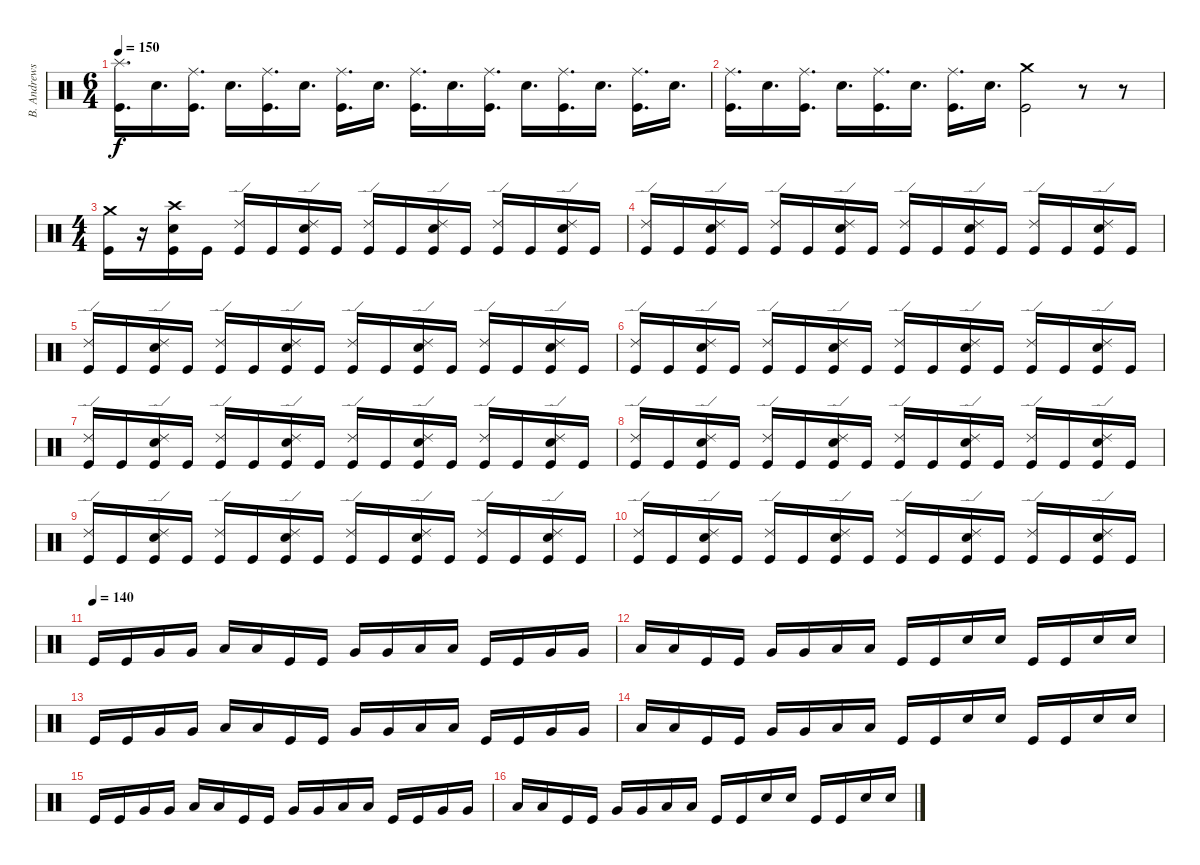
\track ("B. Andrews" "B. Andrews") {instrument percussion}
\staff {score}
\articulation defaults
\ts (6 4)
\tempo 150
\clef neutral
\ks c
("Splash (hit)" "Kick (hit)").16{d dy f} "Electric Snare (hit)".16{d} ("Ride (middle)" "Kick (hit)").16{d} "Electric Snare (hit)".16{d} ("Ride (middle)" "Kick (hit)").16{d} "Electric Snare (hit)".16{d} ("Ride (middle)" "Kick (hit)").16{d} "Electric Snare (hit)".16{d} ("Ride (middle)" "Kick (hit)").16{d} "Electric Snare (hit)".16{d} ("Ride (middle)" "Kick (hit)").16{d} "Electric Snare (hit)".16{d} ("Ride (middle)" "Kick (hit)").16{d} "Electric Snare (hit)".16{d} ("Ride (middle)" "Kick (hit)").16{d} "Electric Snare (hit)".16{d} |
("Ride (middle)" "Kick (hit)").16{d} "Electric Snare (hit)".16{d} ("Ride (middle)" "Kick (hit)").16{d} "Electric Snare (hit)".16{d} ("Ride (middle)" "Kick (hit)").16{d} "Electric Snare (hit)".16{d} ("Ride (middle)" "Kick (hit)").16{d} "Electric Snare (hit)".16{d} ("Crash medium (hit)" "Kick (hit)").2 r.8 r.8 |
\ts (4 4)
("Crash medium (hit)" "Kick (hit)").16 r.16 ("Crash high (hit)" "Electric Snare (hit)" "Kick (hit)").16 "Kick (hit)".16 ("Ride (edge) 2" "Kick (hit)").16 "Kick (hit)".16 ("Ride (edge) 2" "Electric Snare (hit)" "Kick (hit)").16 "Kick (hit)".16 ("Ride (edge) 2" "Kick (hit)").16 "Kick (hit)".16 ("Ride (edge) 2" "Electric Snare (hit)" "Kick (hit)").16 "Kick (hit)".16 ("Ride (edge) 2" "Kick (hit)").16 "Kick (hit)".16 ("Ride (edge) 2" "Electric Snare (hit)" "Kick (hit)").16 "Kick (hit)".16 |
("Ride (edge) 2" "Kick (hit)").16 "Kick (hit)".16 ("Ride (edge) 2" "Electric Snare (hit)" "Kick (hit)").16 "Kick (hit)".16 ("Ride (edge) 2" "Kick (hit)").16 "Kick (hit)".16 ("Ride (edge) 2" "Electric Snare (hit)" "Kick (hit)").16 "Kick (hit)".16 ("Ride (edge) 2" "Kick (hit)").16 "Kick (hit)".16 ("Ride (edge) 2" "Electric Snare (hit)" "Kick (hit)").16 "Kick (hit)".16 ("Ride (edge) 2" "Kick (hit)").16 "Kick (hit)".16 ("Ride (edge) 2" "Electric Snare (hit)" "Kick (hit)").16 "Kick (hit)".16 |
("Ride (edge) 2" "Kick (hit)").16 "Kick (hit)".16 ("Ride (edge) 2" "Electric Snare (hit)" "Kick (hit)").16 "Kick (hit)".16 ("Ride (edge) 2" "Kick (hit)").16 "Kick (hit)".16 ("Ride (edge) 2" "Electric Snare (hit)" "Kick (hit)").16 "Kick (hit)".16 ("Ride (edge) 2" "Kick (hit)").16 "Kick (hit)".16 ("Ride (edge) 2" "Electric Snare (hit)" "Kick (hit)").16 "Kick (hit)".16 ("Ride (edge) 2" "Kick (hit)").16 "Kick (hit)".16 ("Ride (edge) 2" "Electric Snare (hit)" "Kick (hit)").16 "Kick (hit)".16 |
("Ride (edge) 2" "Kick (hit)").16 "Kick (hit)".16 ("Ride (edge) 2" "Electric Snare (hit)" "Kick (hit)").16 "Kick (hit)".16 ("Ride (edge) 2" "Kick (hit)").16 "Kick (hit)".16 ("Ride (edge) 2" "Electric Snare (hit)" "Kick (hit)").16 "Kick (hit)".16 ("Ride (edge) 2" "Kick (hit)").16 "Kick (hit)".16 ("Ride (edge) 2" "Electric Snare (hit)" "Kick (hit)").16 "Kick (hit)".16 ("Ride (edge) 2" "Kick (hit)").16 "Kick (hit)".16 ("Ride (edge) 2" "Electric Snare (hit)" "Kick (hit)").16 "Kick (hit)".16 |
("Ride (edge) 2" "Kick (hit)").16 "Kick (hit)".16 ("Ride (edge) 2" "Electric Snare (hit)" "Kick (hit)").16 "Kick (hit)".16 ("Ride (edge) 2" "Kick (hit)").16 "Kick (hit)".16 ("Ride (edge) 2" "Electric Snare (hit)" "Kick (hit)").16 "Kick (hit)".16 ("Ride (edge) 2" "Kick (hit)").16 "Kick (hit)".16 ("Ride (edge) 2" "Electric Snare (hit)" "Kick (hit)").16 "Kick (hit)".16 ("Ride (edge) 2" "Kick (hit)").16 "Kick (hit)".16 ("Ride (edge) 2" "Electric Snare (hit)" "Kick (hit)").16 "Kick (hit)".16 |
("Ride (edge) 2" "Kick (hit)").16 "Kick (hit)".16 ("Ride (edge) 2" "Electric Snare (hit)" "Kick (hit)").16 "Kick (hit)".16 ("Ride (edge) 2" "Kick (hit)").16 "Kick (hit)".16 ("Ride (edge) 2" "Electric Snare (hit)" "Kick (hit)").16 "Kick (hit)".16 ("Ride (edge) 2" "Kick (hit)").16 "Kick (hit)".16 ("Ride (edge) 2" "Electric Snare (hit)" "Kick (hit)").16 "Kick (hit)".16 ("Ride (edge) 2" "Kick (hit)").16 "Kick (hit)".16 ("Ride (edge) 2" "Electric Snare (hit)" "Kick (hit)").16 "Kick (hit)".16 |
("Ride (edge) 2" "Kick (hit)").16 "Kick (hit)".16 ("Ride (edge) 2" "Electric Snare (hit)" "Kick (hit)").16 "Kick (hit)".16 ("Ride (edge) 2" "Kick (hit)").16 "Kick (hit)".16 ("Ride (edge) 2" "Electric Snare (hit)" "Kick (hit)").16 "Kick (hit)".16 ("Ride (edge) 2" "Kick (hit)").16 "Kick (hit)".16 ("Ride (edge) 2" "Electric Snare (hit)" "Kick (hit)").16 "Kick (hit)".16 ("Ride (edge) 2" "Kick (hit)").16 "Kick (hit)".16 ("Ride (edge) 2" "Electric Snare (hit)" "Kick (hit)").16 "Kick (hit)".16 |
("Ride (edge) 2" "Kick (hit)").16 "Kick (hit)".16 ("Ride (edge) 2" "Electric Snare (hit)" "Kick (hit)").16 "Kick (hit)".16 ("Ride (edge) 2" "Kick (hit)").16 "Kick (hit)".16 ("Ride (edge) 2" "Electric Snare (hit)" "Kick (hit)").16 "Kick (hit)".16 ("Ride (edge) 2" "Kick (hit)").16 "Kick (hit)".16 ("Ride (edge) 2" "Electric Snare (hit)" "Kick (hit)").16 "Kick (hit)".16 ("Ride (edge) 2" "Kick (hit)").16 "Kick (hit)".16 ("Ride (edge) 2" "Electric Snare (hit)" "Kick (hit)").16 "Kick (hit)".16 |
\tempo (140)
"Kick (hit)".16 "Kick (hit)".16 "Very Low Tom (hit)".16 "Very Low Tom (hit)".16 "Low Floor Tom (hit)".16 "Low Floor Tom (hit)".16 "Kick (hit)".16 "Kick (hit)".16 "Very Low Tom (hit)".16 "Very Low Tom (hit)".16 "Low Floor Tom (hit)".16 "Low Floor Tom (hit)".16 "Kick (hit)".16 "Kick (hit)".16 "Very Low Tom (hit)".16 "Very Low Tom (hit)".16 |
"Low Floor Tom (hit)".16 "Low Floor Tom (hit)".16 "Kick (hit)".16 "Kick (hit)".16 "Very Low Tom (hit)".16 "Very Low Tom (hit)".16 "Low Floor Tom (hit)".16 "Low Floor Tom (hit)".16 "Kick (hit)".16 "Kick (hit)".16 "Electric Snare (hit)".16 "Electric Snare (hit)".16 "Kick (hit)".16 "Kick (hit)".16 "Electric Snare (hit)".16 "Electric Snare (hit)".16 |
"Kick (hit)".16 "Kick (hit)".16 "Very Low Tom (hit)".16 "Very Low Tom (hit)".16 "Low Floor Tom (hit)".16 "Low Floor Tom (hit)".16 "Kick (hit)".16 "Kick (hit)".16 "Very Low Tom (hit)".16 "Very Low Tom (hit)".16 "Low Floor Tom (hit)".16 "Low Floor Tom (hit)".16 "Kick (hit)".16 "Kick (hit)".16 "Very Low Tom (hit)".16 "Very Low Tom (hit)".16 |
"Low Floor Tom (hit)".16 "Low Floor Tom (hit)".16 "Kick (hit)".16 "Kick (hit)".16 "Very Low Tom (hit)".16 "Very Low Tom (hit)".16 "Low Floor Tom (hit)".16 "Low Floor Tom (hit)".16 "Kick (hit)".16 "Kick (hit)".16 "Electric Snare (hit)".16 "Electric Snare (hit)".16 "Kick (hit)".16 "Kick (hit)".16 "Electric Snare (hit)".16 "Electric Snare (hit)".16 |
"Kick (hit)".16 "Kick (hit)".16 "Very Low Tom (hit)".16 "Very Low Tom (hit)".16 "Low Floor Tom (hit)".16 "Low Floor Tom (hit)".16 "Kick (hit)".16 "Kick (hit)".16 "Very Low Tom (hit)".16 "Very Low Tom (hit)".16 "Low Floor Tom (hit)".16 "Low Floor Tom (hit)".16 "Kick (hit)".16 "Kick (hit)".16 "Very Low Tom (hit)".16 "Very Low Tom (hit)".16 |
"Low Floor Tom (hit)".16 "Low Floor Tom (hit)".16 "Kick (hit)".16 "Kick (hit)".16 "Very Low Tom (hit)".16 "Very Low Tom (hit)".16 "Low Floor Tom (hit)".16 "Low Floor Tom (hit)".16 "Kick (hit)".16 "Kick (hit)".16 "Electric Snare (hit)".16 "Electric Snare (hit)".16 "Kick (hit)".16 "Kick (hit)".16 "Electric Snare (hit)".16 "Electric Snare (hit)".16
